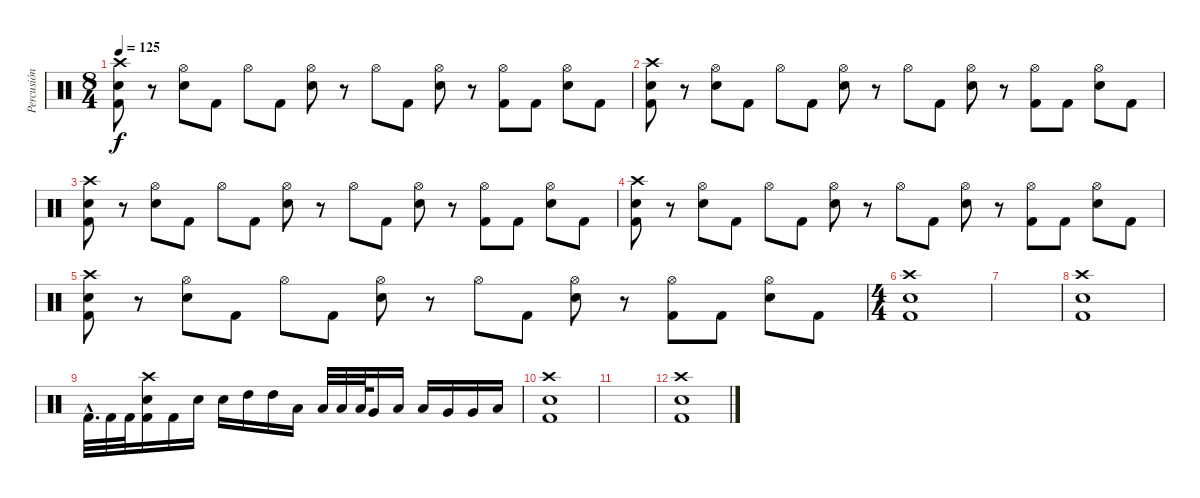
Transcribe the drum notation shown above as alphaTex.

\track ("Percusión" "Percusión") {instrument percussion}
\staff {score}
\articulation defaults
\ts (8 4)
\tempo 125
\clef neutral
\ks c
("Crash high (hit)" "Electric Snare (hit)" "Kick (hit) 2").8{dy f} r.8 ("Hi-Hat (open)" "Electric Snare (hit)").8 "Kick (hit) 2".8 "Hi-Hat (open)".8 "Kick (hit) 2".8 ("Hi-Hat (open)" "Electric Snare (hit)").8 r.8 "Hi-Hat (open)".8 "Kick (hit) 2".8 ("Hi-Hat (open)" "Electric Snare (hit)").8 r.8 ("Hi-Hat (open)" "Kick (hit) 2").8 "Kick (hit) 2".8 ("Hi-Hat (open)" "Electric Snare (hit)").8 "Kick (hit) 2".8 |
("Crash high (hit)" "Electric Snare (hit)" "Kick (hit) 2").8 r.8 ("Hi-Hat (open)" "Electric Snare (hit)").8 "Kick (hit) 2".8 "Hi-Hat (open)".8 "Kick (hit) 2".8 ("Hi-Hat (open)" "Electric Snare (hit)").8 r.8 "Hi-Hat (open)".8 "Kick (hit) 2".8 ("Hi-Hat (open)" "Electric Snare (hit)").8 r.8 ("Hi-Hat (open)" "Kick (hit) 2").8 "Kick (hit) 2".8 ("Hi-Hat (open)" "Electric Snare (hit)").8 "Kick (hit) 2".8 |
("Crash high (hit)" "Electric Snare (hit)" "Kick (hit) 2").8 r.8 ("Hi-Hat (open)" "Electric Snare (hit)").8 "Kick (hit) 2".8 "Hi-Hat (open)".8 "Kick (hit) 2".8 ("Hi-Hat (open)" "Electric Snare (hit)").8 r.8 "Hi-Hat (open)".8 "Kick (hit) 2".8 ("Hi-Hat (open)" "Electric Snare (hit)").8 r.8 ("Hi-Hat (open)" "Kick (hit) 2").8 "Kick (hit) 2".8 ("Hi-Hat (open)" "Electric Snare (hit)").8 "Kick (hit) 2".8 |
("Crash high (hit)" "Electric Snare (hit)" "Kick (hit) 2").8 r.8 ("Hi-Hat (open)" "Electric Snare (hit)").8 "Kick (hit) 2".8 "Hi-Hat (open)".8 "Kick (hit) 2".8 ("Hi-Hat (open)" "Electric Snare (hit)").8 r.8 "Hi-Hat (open)".8 "Kick (hit) 2".8 ("Hi-Hat (open)" "Electric Snare (hit)").8 r.8 ("Hi-Hat (open)" "Kick (hit) 2").8 "Kick (hit) 2".8 ("Hi-Hat (open)" "Electric Snare (hit)").8 "Kick (hit) 2".8 |
("Crash high (hit)" "Electric Snare (hit)" "Kick (hit) 2").8 r.8 ("Hi-Hat (open)" "Electric Snare (hit)").8 "Kick (hit) 2".8 "Hi-Hat (open)".8 "Kick (hit) 2".8 ("Hi-Hat (open)" "Electric Snare (hit)").8 r.8 "Hi-Hat (open)".8 "Kick (hit) 2".8 ("Hi-Hat (open)" "Electric Snare (hit)").8 r.8 ("Hi-Hat (open)" "Kick (hit) 2").8 "Kick (hit) 2".8 ("Hi-Hat (open)" "Electric Snare (hit)").8 "Kick (hit) 2".8 |
\ts (4 4)
("Crash high (hit)" "Electric Snare (hit)" "Kick (hit) 2").1 |
|
("Crash high (hit)" "Electric Snare (hit)" "Kick (hit) 2").1 |
"Kick (hit) 2"{hac}.32{d} "Kick (hit) 2".32 "Kick (hit) 2".32 ("Crash high (hit)" "Electric Snare (hit)" "Kick (hit) 2").16 "Kick (hit) 2".16 "Electric Snare (hit)".16 "Electric Snare (hit)".16 "High Tom (hit)".16 "High Tom (hit)".16 "Low Tom (hit)".16 "Low Tom (hit)".32 "Low Tom (hit)".32 "Low Tom (hit)".64 "Very Low Tom (hit)".16 "Low Tom (hit)".16 "Low Tom (hit)".16 "Very Low Tom (hit)".16 "Very Low Tom (hit)".16 "Low Floor Tom (hit)".16 |
("Crash high (hit)" "Electric Snare (hit)" "Kick (hit) 2").1 |
|
("Crash high (hit)" "Electric Snare (hit)" "Kick (hit) 2").1
